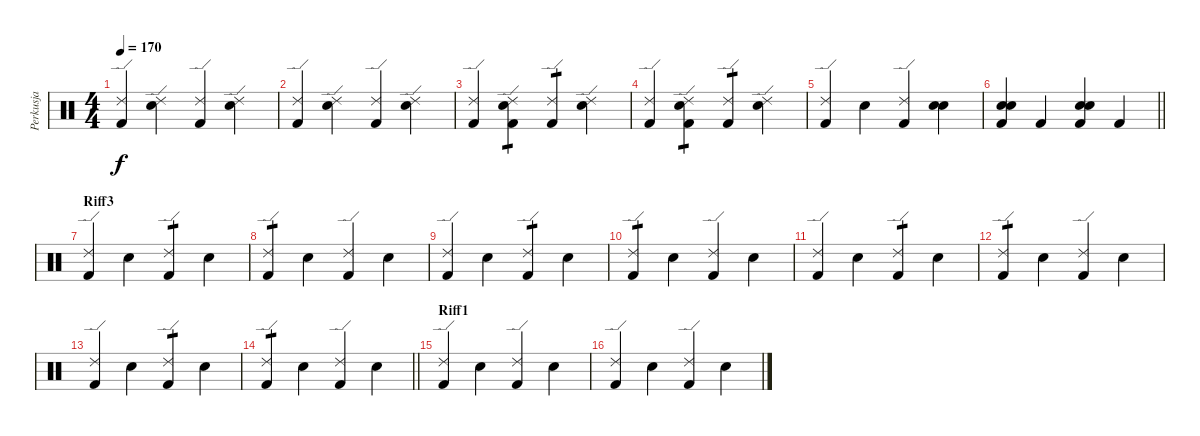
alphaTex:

\track ("Perkusja" "Perkusja") {instrument percussion}
\staff {score}
\articulation defaults
\ts (4 4)
\tempo 170
\clef neutral
\ks c
("Ride (edge) 2" "Kick (hit) 2").4{dy f} ("Ride (edge) 2" "Electric Snare (hit)").4 ("Ride (edge) 2" "Kick (hit) 2").4 ("Ride (edge) 2" "Electric Snare (hit)").4 |
("Ride (edge) 2" "Kick (hit) 2").4 ("Ride (edge) 2" "Electric Snare (hit)").4 ("Ride (edge) 2" "Kick (hit) 2").4 ("Ride (edge) 2" "Electric Snare (hit)").4 |
("Ride (edge) 2" "Kick (hit) 2").4 ("Ride (edge) 2" "Electric Snare (hit)" "Kick (hit) 2").4{tp 1} ("Ride (edge) 2" "Kick (hit) 2").4{tp 1} ("Ride (edge) 2" "Electric Snare (hit)").4 |
("Ride (edge) 2" "Kick (hit) 2").4 ("Ride (edge) 2" "Electric Snare (hit)" "Kick (hit) 2").4{tp 1} ("Ride (edge) 2" "Kick (hit) 2").4{tp 1} ("Ride (edge) 2" "Electric Snare (hit)").4 |
("Ride (edge) 2" "Kick (hit) 2").4 "Electric Snare (hit)".4 ("Ride (edge) 2" "Kick (hit) 2").4 ("Snare (hit) 2" "Electric Snare (hit)").4 |
\barLineRight lightlight
("Snare (hit) 2" "Electric Snare (hit)" "Kick (hit) 2").4 "Kick (hit) 2".4 ("Snare (hit) 2" "Snare (hit) 2" "Kick (hit) 2").4 "Kick (hit) 2".4 |
\section ("" "Riff3")
("Ride (edge) 2" "Kick (hit) 2").4 "Electric Snare (hit)".4 ("Ride (edge) 2" "Kick (hit) 2").4{tp 1} "Electric Snare (hit)".4 |
("Ride (edge) 2" "Kick (hit) 2").4{tp 1} "Electric Snare (hit)".4 ("Ride (edge) 2" "Kick (hit) 2").4 "Electric Snare (hit)".4 |
("Ride (edge) 2" "Kick (hit) 2").4 "Electric Snare (hit)".4 ("Ride (edge) 2" "Kick (hit) 2").4{tp 1} "Electric Snare (hit)".4 |
("Ride (edge) 2" "Kick (hit) 2").4{tp 1} "Electric Snare (hit)".4 ("Ride (edge) 2" "Kick (hit) 2").4 "Electric Snare (hit)".4 |
("Ride (edge) 2" "Kick (hit) 2").4 "Electric Snare (hit)".4 ("Ride (edge) 2" "Kick (hit) 2").4{tp 1} "Electric Snare (hit)".4 |
("Ride (edge) 2" "Kick (hit) 2").4{tp 1} "Electric Snare (hit)".4 ("Ride (edge) 2" "Kick (hit) 2").4 "Electric Snare (hit)".4 |
("Ride (edge) 2" "Kick (hit) 2").4 "Electric Snare (hit)".4 ("Ride (edge) 2" "Kick (hit) 2").4{tp 1} "Electric Snare (hit)".4 |
\barLineRight lightlight
("Ride (edge) 2" "Kick (hit) 2").4{tp 1} "Electric Snare (hit)".4 ("Ride (edge) 2" "Kick (hit) 2").4 "Electric Snare (hit)".4 |
\section ("" "Riff1")
("Ride (edge) 2" "Kick (hit) 2").4 "Electric Snare (hit)".4 ("Ride (edge) 2" "Kick (hit) 2").4 "Electric Snare (hit)".4 |
("Ride (edge) 2" "Kick (hit) 2").4 "Electric Snare (hit)".4 ("Ride (edge) 2" "Kick (hit) 2").4 "Electric Snare (hit)".4
